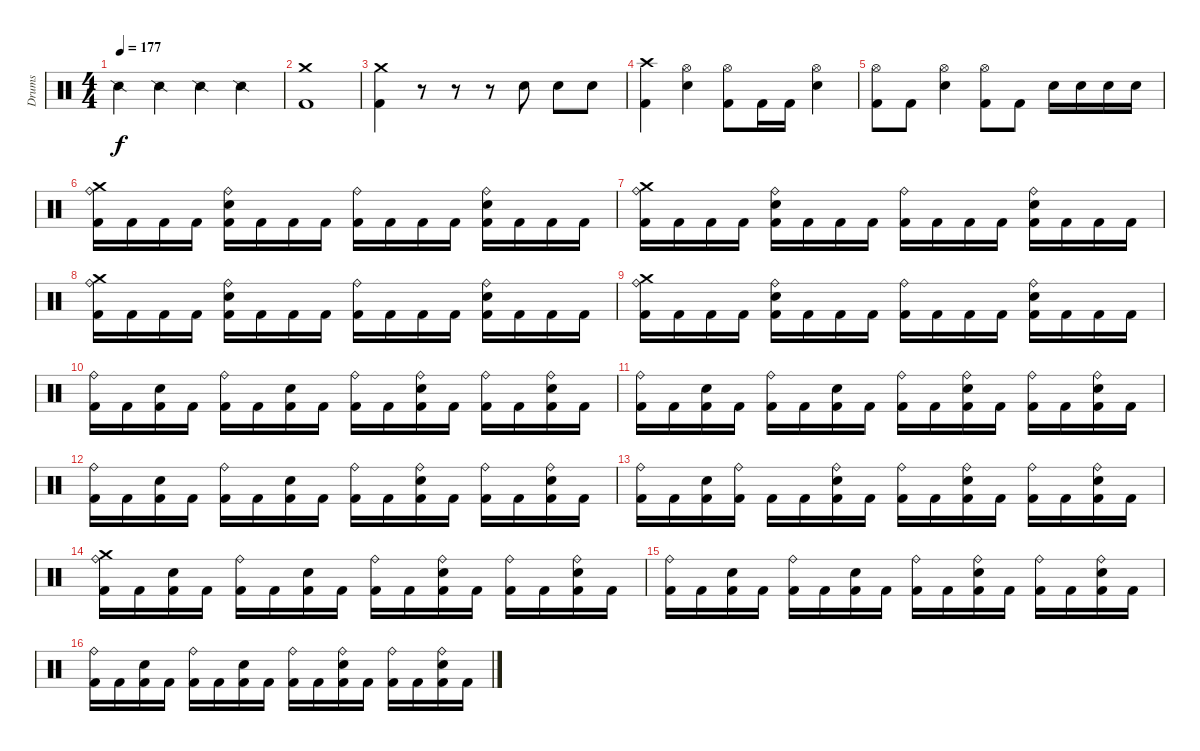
\track ("Drums" "Drums") {instrument percussion}
\staff {score}
\articulation defaults
\ts (4 4)
\tempo 177
\clef neutral
\ks c "Snare (side stick) 2".4{dy f} "Snare (side stick) 2".4 "Snare (side stick) 2".4 "Snare (side stick) 2".4
|
("Crash medium (hit)" "Kick (hit) 2").1 |
("Crash medium (hit)" "Kick (hit) 2").4 r.8 r.8 r.8 "Snare (hit) 2".8 "Snare (hit) 2".8 "Snare (hit) 2".8 |
("Kick (hit) 2" "Crash high (hit)").4 ("Snare (hit) 2" "Hi-Hat (open)").4 ("Kick (hit) 2" "Hi-Hat (open)").8 "Kick (hit) 2".16 "Kick (hit) 2".16 ("Snare (hit) 2" "Hi-Hat (open)").4 |
("Hi-Hat (open)" "Kick (hit) 2").8 "Kick (hit) 2".8 ("Snare (hit) 2" "Hi-Hat (open)").4 ("Kick (hit) 2" "Hi-Hat (open)").8 "Kick (hit) 2".8 "Snare (hit) 2".16 "Snare (hit) 2".16 "Snare (hit) 2".16 "Snare (hit) 2".16 |
("Ride (bell)" "Crash medium (hit)" "Kick (hit) 2").16 "Kick (hit) 2".16 "Kick (hit) 2".16 "Kick (hit) 2".16 ("Ride (bell)" "Snare (hit) 2" "Kick (hit) 2").16 "Kick (hit) 2".16 "Kick (hit) 2".16 "Kick (hit) 2".16 ("Ride (bell)" "Kick (hit) 2").16 "Kick (hit) 2".16 "Kick (hit) 2".16 "Kick (hit) 2".16 ("Ride (bell)" "Snare (hit) 2" "Kick (hit) 2").16 "Kick (hit) 2".16 "Kick (hit) 2".16 "Kick (hit) 2".16 |
("Ride (bell)" "Crash medium (hit)" "Kick (hit) 2").16 "Kick (hit) 2".16 "Kick (hit) 2".16 "Kick (hit) 2".16 ("Ride (bell)" "Snare (hit) 2" "Kick (hit) 2").16 "Kick (hit) 2".16 "Kick (hit) 2".16 "Kick (hit) 2".16 ("Ride (bell)" "Kick (hit) 2").16 "Kick (hit) 2".16 "Kick (hit) 2".16 "Kick (hit) 2".16 ("Ride (bell)" "Snare (hit) 2" "Kick (hit) 2").16 "Kick (hit) 2".16 "Kick (hit) 2".16 "Kick (hit) 2".16 |
("Ride (bell)" "Crash medium (hit)" "Kick (hit) 2").16 "Kick (hit) 2".16 "Kick (hit) 2".16 "Kick (hit) 2".16 ("Ride (bell)" "Snare (hit) 2" "Kick (hit) 2").16 "Kick (hit) 2".16 "Kick (hit) 2".16 "Kick (hit) 2".16 ("Ride (bell)" "Kick (hit) 2").16 "Kick (hit) 2".16 "Kick (hit) 2".16 "Kick (hit) 2".16 ("Ride (bell)" "Snare (hit) 2" "Kick (hit) 2").16 "Kick (hit) 2".16 "Kick (hit) 2".16 "Kick (hit) 2".16 |
("Ride (bell)" "Crash medium (hit)" "Kick (hit) 2").16 "Kick (hit) 2".16 "Kick (hit) 2".16 "Kick (hit) 2".16 ("Ride (bell)" "Snare (hit) 2" "Kick (hit) 2").16 "Kick (hit) 2".16 "Kick (hit) 2".16 "Kick (hit) 2".16 ("Ride (bell)" "Kick (hit) 2").16 "Kick (hit) 2".16 "Kick (hit) 2".16 "Kick (hit) 2".16 ("Ride (bell)" "Snare (hit) 2" "Kick (hit) 2").16 "Kick (hit) 2".16 "Kick (hit) 2".16 "Kick (hit) 2".16 |
("Ride (bell)" "Kick (hit) 2").16 "Kick (hit) 2".16 ("Snare (hit) 2" "Kick (hit) 2").16 "Kick (hit) 2".16 ("Ride (bell)" "Kick (hit) 2").16 "Kick (hit) 2".16 ("Snare (hit) 2" "Kick (hit) 2").16 "Kick (hit) 2".16 ("Ride (bell)" "Kick (hit) 2").16 "Kick (hit) 2".16 ("Ride (bell)" "Snare (hit) 2" "Kick (hit) 2").16 "Kick (hit) 2".16 ("Ride (bell)" "Kick (hit) 2").16 "Kick (hit) 2".16 ("Ride (bell)" "Snare (hit) 2" "Kick (hit) 2").16 "Kick (hit) 2".16 |
("Ride (bell)" "Kick (hit) 2").16 "Kick (hit) 2".16 ("Snare (hit) 2" "Kick (hit) 2").16 "Kick (hit) 2".16 ("Ride (bell)" "Kick (hit) 2").16 "Kick (hit) 2".16 ("Snare (hit) 2" "Kick (hit) 2").16 "Kick (hit) 2".16 ("Ride (bell)" "Kick (hit) 2").16 "Kick (hit) 2".16 ("Ride (bell)" "Snare (hit) 2" "Kick (hit) 2").16 "Kick (hit) 2".16 ("Ride (bell)" "Kick (hit) 2").16 "Kick (hit) 2".16 ("Ride (bell)" "Snare (hit) 2" "Kick (hit) 2").16 "Kick (hit) 2".16 |
("Ride (bell)" "Kick (hit) 2").16 "Kick (hit) 2".16 ("Snare (hit) 2" "Kick (hit) 2").16 "Kick (hit) 2".16 ("Ride (bell)" "Kick (hit) 2").16 "Kick (hit) 2".16 ("Snare (hit) 2" "Kick (hit) 2").16 "Kick (hit) 2".16 ("Ride (bell)" "Kick (hit) 2").16 "Kick (hit) 2".16 ("Ride (bell)" "Snare (hit) 2" "Kick (hit) 2").16 "Kick (hit) 2".16 ("Ride (bell)" "Kick (hit) 2").16 "Kick (hit) 2".16 ("Ride (bell)" "Snare (hit) 2" "Kick (hit) 2").16 "Kick (hit) 2".16 |
("Ride (bell)" "Kick (hit) 2").16 "Kick (hit) 2".16 ("Snare (hit) 2" "Kick (hit) 2").16 ("Ride (bell)" "Kick (hit) 2").16 "Kick (hit) 2".16 "Kick (hit) 2".16 ("Ride (bell)" "Snare (hit) 2" "Kick (hit) 2").16 "Kick (hit) 2".16 ("Ride (bell)" "Kick (hit) 2").16 "Kick (hit) 2".16 ("Ride (bell)" "Snare (hit) 2" "Kick (hit) 2").16 "Kick (hit) 2".16 ("Ride (bell)" "Kick (hit) 2").16 "Kick (hit) 2".16 ("Ride (bell)" "Snare (hit) 2" "Kick (hit) 2").16 "Kick (hit) 2".16 |
("Ride (bell)" "Crash medium (hit)" "Kick (hit) 2").16 "Kick (hit) 2".16 ("Snare (hit) 2" "Kick (hit) 2").16 "Kick (hit) 2".16 ("Ride (bell)" "Kick (hit) 2").16 "Kick (hit) 2".16 ("Snare (hit) 2" "Kick (hit) 2").16 "Kick (hit) 2".16 ("Ride (bell)" "Kick (hit) 2").16 "Kick (hit) 2".16 ("Ride (bell)" "Snare (hit) 2" "Kick (hit) 2").16 "Kick (hit) 2".16 ("Ride (bell)" "Kick (hit) 2").16 "Kick (hit) 2".16 ("Ride (bell)" "Snare (hit) 2" "Kick (hit) 2").16 "Kick (hit) 2".16 |
("Ride (bell)" "Kick (hit) 2").16 "Kick (hit) 2".16 ("Snare (hit) 2" "Kick (hit) 2").16 "Kick (hit) 2".16 ("Ride (bell)" "Kick (hit) 2").16 "Kick (hit) 2".16 ("Snare (hit) 2" "Kick (hit) 2").16 "Kick (hit) 2".16 ("Ride (bell)" "Kick (hit) 2").16 "Kick (hit) 2".16 ("Ride (bell)" "Snare (hit) 2" "Kick (hit) 2").16 "Kick (hit) 2".16 ("Ride (bell)" "Kick (hit) 2").16 "Kick (hit) 2".16 ("Ride (bell)" "Snare (hit) 2" "Kick (hit) 2").16 "Kick (hit) 2".16 |
("Ride (bell)" "Kick (hit) 2").16 "Kick (hit) 2".16 ("Snare (hit) 2" "Kick (hit) 2").16 "Kick (hit) 2".16 ("Ride (bell)" "Kick (hit) 2").16 "Kick (hit) 2".16 ("Snare (hit) 2" "Kick (hit) 2").16 "Kick (hit) 2".16 ("Ride (bell)" "Kick (hit) 2").16 "Kick (hit) 2".16 ("Ride (bell)" "Snare (hit) 2" "Kick (hit) 2").16 "Kick (hit) 2".16 ("Ride (bell)" "Kick (hit) 2").16 "Kick (hit) 2".16 ("Ride (bell)" "Snare (hit) 2" "Kick (hit) 2").16 "Kick (hit) 2".16
